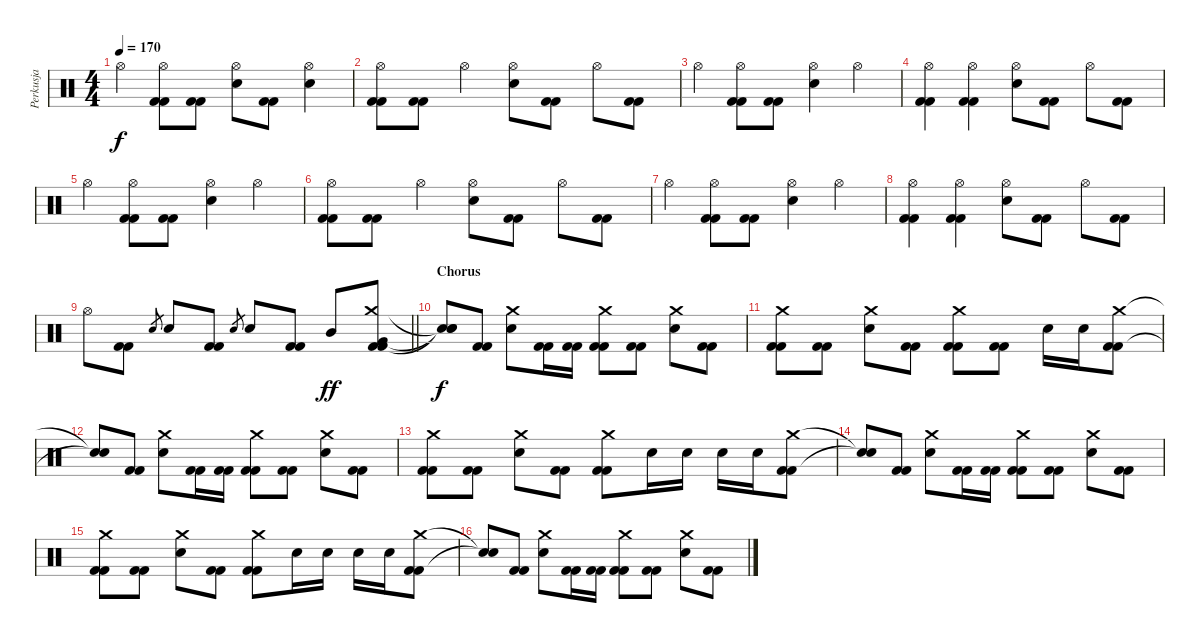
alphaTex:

\track ("Perkusja" "Perkusja") {instrument percussion}
\staff {score}
\articulation defaults
\ts (4 4)
\tempo 170
\clef neutral
\ks c "Hi-Hat (open)".4{dy f}
("Hi-Hat (open)" "Kick (hit) 2" "Kick (hit) 2").8 ("Kick (hit) 2" "Kick (hit) 2").8 ("Hi-Hat (open)" "Electric Snare (hit)").8 ("Kick (hit) 2" "Kick (hit) 2").8 ("Hi-Hat (open)" "Electric Snare (hit)").4 |
("Hi-Hat (open)" "Kick (hit) 2" "Kick (hit) 2").8 ("Kick (hit) 2" "Kick (hit) 2").8 "Hi-Hat (open)".4 ("Hi-Hat (open)" "Electric Snare (hit)").8 ("Kick (hit) 2" "Kick (hit) 2").8 "Hi-Hat (open)".8 ("Kick (hit) 2" "Kick (hit) 2").8 |
"Hi-Hat (open)".4 ("Hi-Hat (open)" "Kick (hit) 2" "Kick (hit) 2").8 ("Kick (hit) 2" "Kick (hit) 2").8 ("Hi-Hat (open)" "Electric Snare (hit)").4 "Hi-Hat (open)".4 |
("Hi-Hat (open)" "Kick (hit) 2" "Kick (hit) 2").4 ("Hi-Hat (open)" "Kick (hit) 2" "Kick (hit) 2").4 ("Hi-Hat (open)" "Electric Snare (hit)").8 ("Kick (hit) 2" "Kick (hit) 2").8 "Hi-Hat (open)".8 ("Kick (hit) 2" "Kick (hit) 2").8 |
"Hi-Hat (open)".4 ("Hi-Hat (open)" "Kick (hit) 2" "Kick (hit) 2").8 ("Kick (hit) 2" "Kick (hit) 2").8 ("Hi-Hat (open)" "Electric Snare (hit)").4 "Hi-Hat (open)".4 |
("Hi-Hat (open)" "Kick (hit) 2" "Kick (hit) 2").8 ("Kick (hit) 2" "Kick (hit) 2").8 "Hi-Hat (open)".4 ("Hi-Hat (open)" "Electric Snare (hit)").8 ("Kick (hit) 2" "Kick (hit) 2").8 "Hi-Hat (open)".8 ("Kick (hit) 2" "Kick (hit) 2").8 |
"Hi-Hat (open)".4 ("Hi-Hat (open)" "Kick (hit) 2" "Kick (hit) 2").8 ("Kick (hit) 2" "Kick (hit) 2").8 ("Hi-Hat (open)" "Electric Snare (hit)").4 "Hi-Hat (open)".4 |
("Hi-Hat (open)" "Kick (hit) 2" "Kick (hit) 2").4 ("Hi-Hat (open)" "Kick (hit) 2" "Kick (hit) 2").4 ("Hi-Hat (open)" "Electric Snare (hit)").8 ("Kick (hit) 2" "Kick (hit) 2").8 "Hi-Hat (open)".8 ("Kick (hit) 2" "Kick (hit) 2").8 |
\barLineRight lightlight "Hi-Hat (open)".8
("Kick (hit) 2" "Kick (hit) 2").8 "Electric Snare (hit)".8{gr} "Electric Snare (hit)".8 ("Kick (hit) 2" "Kick (hit) 2").8 "Electric Snare (hit)".8{gr} "Electric Snare (hit)".8 ("Kick (hit) 2" "Kick (hit) 2").8 "Mid Tom (hit)".8{dy ff} ("Crash medium (hit)" "Very Low Tom (hit)" "Kick (hit) 2" "Kick (hit) 2").8 |
\section ("" "Chorus")
("Snare (hit)"{t} "Snare (hit)"{t} "Snare (hit)"{t}).8{dy f} ("Kick (hit) 2" "Kick (hit) 2").8 ("Crash medium (hit)" "Electric Snare (hit)").8 ("Kick (hit) 2" "Kick (hit) 2").16 ("Kick (hit) 2" "Kick (hit) 2").16 ("Crash medium (hit)" "Kick (hit) 2" "Kick (hit) 2").8 ("Kick (hit) 2" "Kick (hit) 2").8 ("Crash medium (hit)" "Electric Snare (hit)").8 ("Kick (hit) 2" "Kick (hit) 2").8 |
("Crash medium (hit)" "Kick (hit) 2" "Kick (hit) 2").8 ("Kick (hit) 2" "Kick (hit) 2").8 ("Crash medium (hit)" "Electric Snare (hit)").8 ("Kick (hit) 2" "Kick (hit) 2").8 ("Crash medium (hit)" "Kick (hit) 2" "Kick (hit) 2").8 ("Kick (hit) 2" "Kick (hit) 2").8 "Electric Snare (hit)".16 "Electric Snare (hit)".16 ("Crash medium (hit)" "Kick (hit) 2" "Kick (hit) 2").8 |
("Snare (hit)"{t} "Snare (hit)"{t}).8 ("Kick (hit) 2" "Kick (hit) 2").8 ("Crash medium (hit)" "Electric Snare (hit)").8 ("Kick (hit) 2" "Kick (hit) 2").16 ("Kick (hit) 2" "Kick (hit) 2").16 ("Crash medium (hit)" "Kick (hit) 2" "Kick (hit) 2").8 ("Kick (hit) 2" "Kick (hit) 2").8 ("Crash medium (hit)" "Electric Snare (hit)").8 ("Kick (hit) 2" "Kick (hit) 2").8 |
("Crash medium (hit)" "Kick (hit) 2" "Kick (hit) 2").8 ("Kick (hit) 2" "Kick (hit) 2").8 ("Crash medium (hit)" "Electric Snare (hit)").8 ("Kick (hit) 2" "Kick (hit) 2").8 ("Crash medium (hit)" "Kick (hit) 2" "Kick (hit) 2").8 "Electric Snare (hit)".16 "Electric Snare (hit)".16 "Electric Snare (hit)".16 "Electric Snare (hit)".16 ("Crash medium (hit)" "Kick (hit) 2" "Kick (hit) 2").8 |
("Snare (hit)"{t} "Snare (hit)"{t}).8 ("Kick (hit) 2" "Kick (hit) 2").8 ("Crash medium (hit)" "Electric Snare (hit)").8 ("Kick (hit) 2" "Kick (hit) 2").16 ("Kick (hit) 2" "Kick (hit) 2").16 ("Crash medium (hit)" "Kick (hit) 2" "Kick (hit) 2").8 ("Kick (hit) 2" "Kick (hit) 2").8 ("Crash medium (hit)" "Electric Snare (hit)").8 ("Kick (hit) 2" "Kick (hit) 2").8 |
("Crash medium (hit)" "Kick (hit) 2" "Kick (hit) 2").8 ("Kick (hit) 2" "Kick (hit) 2").8 ("Crash medium (hit)" "Electric Snare (hit)").8 ("Kick (hit) 2" "Kick (hit) 2").8 ("Crash medium (hit)" "Kick (hit) 2" "Kick (hit) 2").8 "Electric Snare (hit)".16 "Electric Snare (hit)".16 "Electric Snare (hit)".16 "Electric Snare (hit)".16 ("Crash medium (hit)" "Kick (hit) 2" "Kick (hit) 2").8 |
("Snare (hit)"{t} "Snare (hit)"{t}).8 ("Kick (hit) 2" "Kick (hit) 2").8 ("Crash medium (hit)" "Electric Snare (hit)").8 ("Kick (hit) 2" "Kick (hit) 2").16 ("Kick (hit) 2" "Kick (hit) 2").16 ("Crash medium (hit)" "Kick (hit) 2" "Kick (hit) 2").8 ("Kick (hit) 2" "Kick (hit) 2").8 ("Crash medium (hit)" "Electric Snare (hit)").8 ("Kick (hit) 2" "Kick (hit) 2").8
